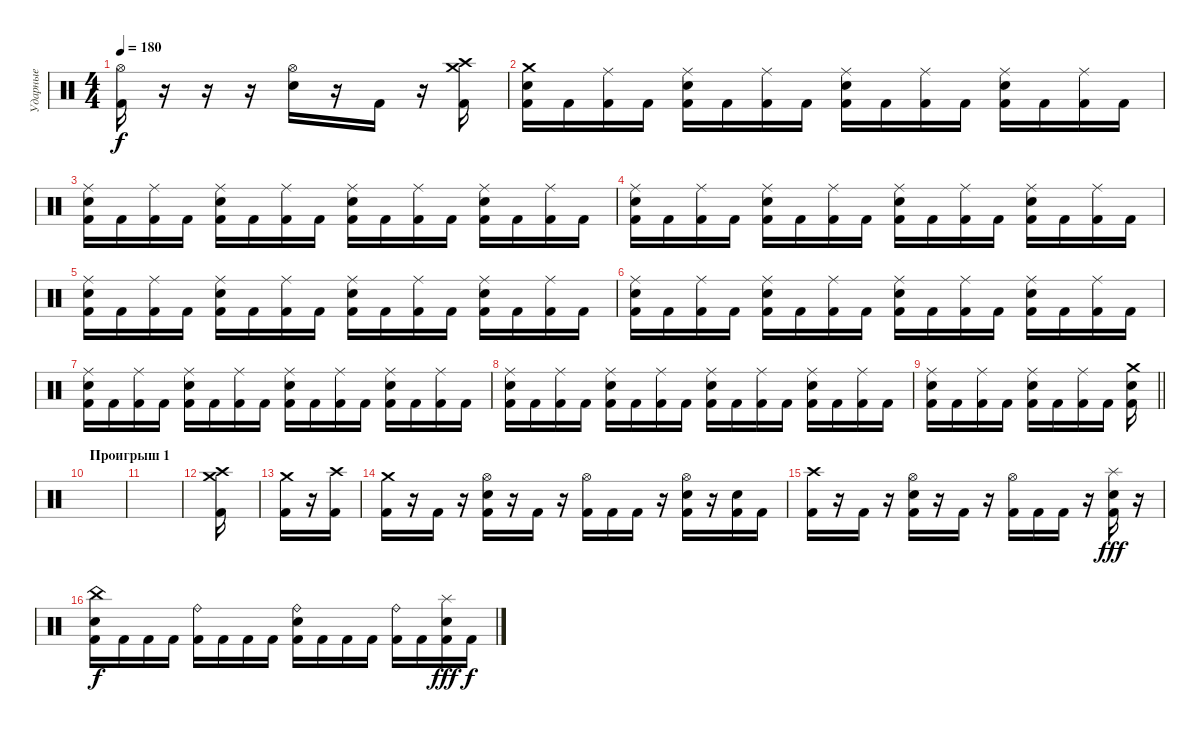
\track ("Ударные" "Ударные") {instrument percussion}
\staff {score}
\articulation defaults
\ts (4 4)
\tempo 180
\clef neutral
\ks c
("Hi-Hat (open)" "Kick (hit) 2").16{dy f} r.16 r.16 r.16 ("Hi-Hat (open)" "Snare (hit) 2").16 r.16 "Kick (hit) 2".16 r.16 ("Crash medium (hit)" "Crash high (hit)" "Kick (hit) 2").16 |
("Crash medium (hit)" "Snare (hit) 2" "Kick (hit) 2").16 "Kick (hit) 2".16 ("Ride (middle)" "Kick (hit) 2").16 "Kick (hit) 2".16 ("Ride (middle)" "Snare (hit) 2" "Kick (hit) 2").16 "Kick (hit) 2".16 ("Ride (middle)" "Kick (hit) 2").16 "Kick (hit) 2".16 ("Ride (middle)" "Snare (hit) 2" "Kick (hit) 2").16 "Kick (hit) 2".16 ("Ride (middle)" "Kick (hit) 2").16 "Kick (hit) 2".16 ("Ride (middle)" "Snare (hit) 2" "Kick (hit) 2").16 "Kick (hit) 2".16 ("Ride (middle)" "Kick (hit) 2").16 "Kick (hit) 2".16 |
("Ride (middle)" "Snare (hit) 2" "Kick (hit) 2").16 "Kick (hit) 2".16 ("Ride (middle)" "Kick (hit) 2").16 "Kick (hit) 2".16 ("Ride (middle)" "Snare (hit) 2" "Kick (hit) 2").16 "Kick (hit) 2".16 ("Ride (middle)" "Kick (hit) 2").16 "Kick (hit) 2".16 ("Ride (middle)" "Snare (hit) 2" "Kick (hit) 2").16 "Kick (hit) 2".16 ("Ride (middle)" "Kick (hit) 2").16 "Kick (hit) 2".16 ("Ride (middle)" "Snare (hit) 2" "Kick (hit) 2").16 "Kick (hit) 2".16 ("Ride (middle)" "Kick (hit) 2").16 "Kick (hit) 2".16 |
("Ride (middle)" "Snare (hit) 2" "Kick (hit) 2").16 "Kick (hit) 2".16 ("Ride (middle)" "Kick (hit) 2").16 "Kick (hit) 2".16 ("Ride (middle)" "Snare (hit) 2" "Kick (hit) 2").16 "Kick (hit) 2".16 ("Ride (middle)" "Kick (hit) 2").16 "Kick (hit) 2".16 ("Ride (middle)" "Snare (hit) 2" "Kick (hit) 2").16 "Kick (hit) 2".16 ("Ride (middle)" "Kick (hit) 2").16 "Kick (hit) 2".16 ("Ride (middle)" "Snare (hit) 2" "Kick (hit) 2").16 "Kick (hit) 2".16 ("Ride (middle)" "Kick (hit) 2").16 "Kick (hit) 2".16 |
("Ride (middle)" "Snare (hit) 2" "Kick (hit) 2").16 "Kick (hit) 2".16 ("Ride (middle)" "Kick (hit) 2").16 "Kick (hit) 2".16 ("Ride (middle)" "Snare (hit) 2" "Kick (hit) 2").16 "Kick (hit) 2".16 ("Ride (middle)" "Kick (hit) 2").16 "Kick (hit) 2".16 ("Ride (middle)" "Snare (hit) 2" "Kick (hit) 2").16 "Kick (hit) 2".16 ("Ride (middle)" "Kick (hit) 2").16 "Kick (hit) 2".16 ("Ride (middle)" "Snare (hit) 2" "Kick (hit) 2").16 "Kick (hit) 2".16 ("Ride (middle)" "Kick (hit) 2").16 "Kick (hit) 2".16 |
("Ride (middle)" "Snare (hit) 2" "Kick (hit) 2").16 "Kick (hit) 2".16 ("Ride (middle)" "Kick (hit) 2").16 "Kick (hit) 2".16 ("Ride (middle)" "Snare (hit) 2" "Kick (hit) 2").16 "Kick (hit) 2".16 ("Ride (middle)" "Kick (hit) 2").16 "Kick (hit) 2".16 ("Ride (middle)" "Snare (hit) 2" "Kick (hit) 2").16 "Kick (hit) 2".16 ("Ride (middle)" "Kick (hit) 2").16 "Kick (hit) 2".16 ("Ride (middle)" "Snare (hit) 2" "Kick (hit) 2").16 "Kick (hit) 2".16 ("Ride (middle)" "Kick (hit) 2").16 "Kick (hit) 2".16 |
("Ride (middle)" "Snare (hit) 2" "Kick (hit) 2").16 "Kick (hit) 2".16 ("Ride (middle)" "Kick (hit) 2").16 "Kick (hit) 2".16 ("Ride (middle)" "Snare (hit) 2" "Kick (hit) 2").16 "Kick (hit) 2".16 ("Ride (middle)" "Kick (hit) 2").16 "Kick (hit) 2".16 ("Ride (middle)" "Snare (hit) 2" "Kick (hit) 2").16 "Kick (hit) 2".16 ("Ride (middle)" "Kick (hit) 2").16 "Kick (hit) 2".16 ("Ride (middle)" "Snare (hit) 2" "Kick (hit) 2").16 "Kick (hit) 2".16 ("Ride (middle)" "Kick (hit) 2").16 "Kick (hit) 2".16 |
("Ride (middle)" "Snare (hit) 2" "Kick (hit) 2").16 "Kick (hit) 2".16 ("Ride (middle)" "Kick (hit) 2").16 "Kick (hit) 2".16 ("Ride (middle)" "Snare (hit) 2" "Kick (hit) 2").16 "Kick (hit) 2".16 ("Ride (middle)" "Kick (hit) 2").16 "Kick (hit) 2".16 ("Ride (middle)" "Snare (hit) 2" "Kick (hit) 2").16 "Kick (hit) 2".16 ("Ride (middle)" "Kick (hit) 2").16 "Kick (hit) 2".16 ("Ride (middle)" "Snare (hit) 2" "Kick (hit) 2").16 "Kick (hit) 2".16 ("Ride (middle)" "Kick (hit) 2").16 "Kick (hit) 2".16 |
\barLineRight lightlight
("Ride (middle)" "Snare (hit) 2" "Kick (hit) 2").16 "Kick (hit) 2".16 ("Ride (middle)" "Kick (hit) 2").16 "Kick (hit) 2".16 ("Ride (middle)" "Snare (hit) 2" "Kick (hit) 2").16 "Kick (hit) 2".16 ("Ride (middle)" "Kick (hit) 2").16 "Kick (hit) 2".16 ("Crash medium (hit)" "Snare (hit) 2" "Kick (hit) 2").16 |
\section ("" "Проигрыш 1")
|
|
("Crash medium (hit)" "Crash high (hit)" "Kick (hit) 2").16 |
("Crash medium (hit)" "Kick (hit) 2").16 r.16 ("Crash high (hit)" "Kick (hit) 2").16 |
("Crash medium (hit)" "Kick (hit) 2").16 r.16 "Kick (hit) 2".16 r.16 ("Hi-Hat (open)" "Snare (hit) 2" "Kick (hit) 2").16 r.16 "Kick (hit) 2".16 r.16 ("Hi-Hat (open)" "Kick (hit) 2").16 "Kick (hit) 2".16 "Kick (hit) 2".16 r.16 ("Hi-Hat (open)" "Snare (hit) 2" "Kick (hit) 2").16 r.16 ("Snare (hit) 2" "Kick (hit) 2").16 "Kick (hit) 2".16 |
("Crash high (hit)" "Kick (hit) 2").16 r.16 "Kick (hit) 2".16 r.16 ("Hi-Hat (open)" "Snare (hit) 2" "Kick (hit) 2").16 r.16 "Kick (hit) 2".16 r.16 ("Hi-Hat (open)" "Kick (hit) 2").16 "Kick (hit) 2".16 "Kick (hit) 2".16 r.16 ("Splash (hit)" "Snare (hit) 2" "Kick (hit) 2").16{dy fff} r.16 |
("China (hit)" "Snare (hit) 2" "Kick (hit) 2").16{dy f} "Kick (hit) 2".16 "Kick (hit) 2".16 "Kick (hit) 2".16 ("Ride (bell)" "Kick (hit) 2").16 "Kick (hit) 2".16 "Kick (hit) 2".16 "Kick (hit) 2".16 ("Ride (bell)" "Snare (hit) 2" "Kick (hit) 2").16 "Kick (hit) 2".16 "Kick (hit) 2".16 "Kick (hit) 2".16 ("Ride (bell)" "Kick (hit) 2").16 "Kick (hit) 2".16 ("Splash (hit)" "Snare (hit) 2" "Kick (hit) 2").16{dy fff} "Kick (hit) 2".16{dy f}
